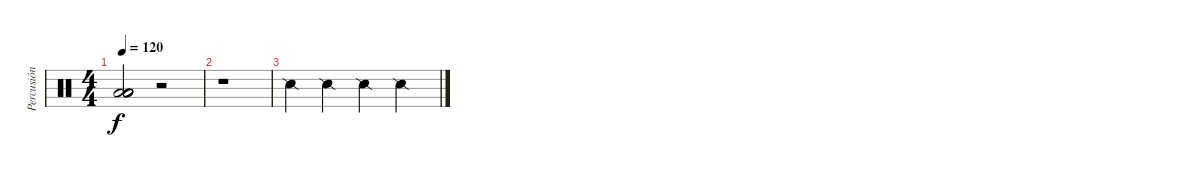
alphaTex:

\track ("Percusión" "Percusión") {instrument percussion}
\staff {score}
\articulation defaults
\ts (4 4)
\tempo 120
\clef neutral
\ks c
("Low Floor Tom (hit)" "Low Floor Tom (hit)" "Low Floor Tom (hit)" "Low Floor Tom (hit)" "Low Floor Tom (hit)").2{dy f} r.2 |
r.1 |
"Snare (side stick) 2".4 "Snare (side stick) 2".4 "Snare (side stick) 2".4 "Snare (side stick) 2".4
